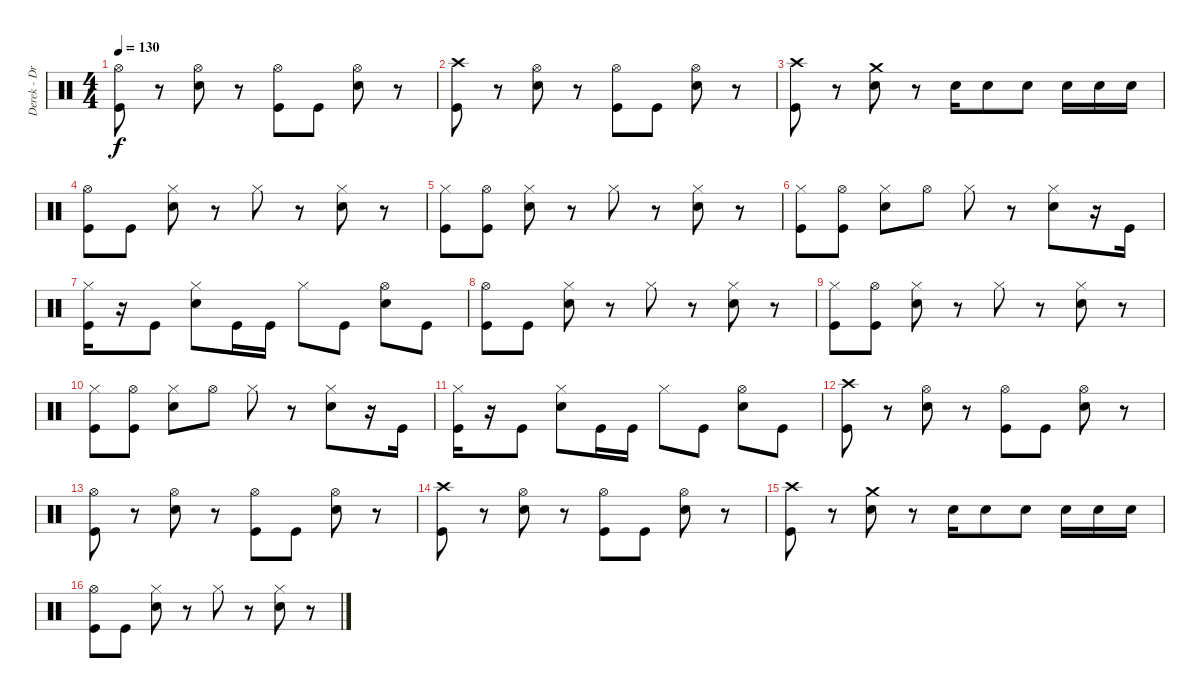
\track ("Derek - Drums" "Derek - Dr") {instrument percussion}
\staff {score}
\articulation defaults
\ts (4 4)
\tempo 130
\clef neutral
\ks c
("Hi-Hat (open)" "Kick (hit)").8{dy f} r.8 ("Hi-Hat (open)" "Electric Snare (hit)").8 r.8 ("Hi-Hat (open)" "Kick (hit)").8 "Kick (hit)".8 ("Hi-Hat (open)" "Electric Snare (hit)").8 r.8 |
("Crash high (hit)" "Kick (hit)").8 r.8 ("Hi-Hat (open)" "Electric Snare (hit)").8 r.8 ("Hi-Hat (open)" "Kick (hit)").8 "Kick (hit)".8 ("Hi-Hat (open)" "Electric Snare (hit)").8 r.8 |
("Crash high (hit)" "Kick (hit)").8 r.8 ("Crash medium (hit)" "Electric Snare (hit)").8 r.8 "Electric Snare (hit)".16 "Electric Snare (hit)".8 "Electric Snare (hit)".8 "Electric Snare (hit)".16 "Electric Snare (hit)".16 "Electric Snare (hit)".16 |
("Hi-Hat (open)" "Kick (hit)").8 "Kick (hit)".8 ("Hi-Hat (closed)" "Electric Snare (hit)").8 r.8 "Hi-Hat (closed)".8 r.8 ("Hi-Hat (closed)" "Electric Snare (hit)").8 r.8 |
("Hi-Hat (closed)" "Kick (hit)").8 ("Hi-Hat (open)" "Kick (hit)").8 ("Hi-Hat (closed)" "Electric Snare (hit)").8 r.8 "Hi-Hat (closed)".8 r.8 ("Hi-Hat (closed)" "Electric Snare (hit)").8 r.8 |
("Hi-Hat (closed)" "Kick (hit)").8 ("Hi-Hat (open)" "Kick (hit)").8 ("Hi-Hat (closed)" "Electric Snare (hit)").8 "Hi-Hat (open)".8 "Hi-Hat (closed)".8 r.8 ("Hi-Hat (closed)" "Electric Snare (hit)").8 r.16 "Kick (hit)".16 |
("Hi-Hat (closed)" "Kick (hit)").16 r.16 "Kick (hit)".8 ("Hi-Hat (closed)" "Electric Snare (hit)").8 "Kick (hit)".16 "Kick (hit)".16 "Hi-Hat (closed)".8 "Kick (hit)".8 ("Hi-Hat (open)" "Electric Snare (hit)").8 "Kick (hit)".8 |
("Hi-Hat (open)" "Kick (hit)").8 "Kick (hit)".8 ("Hi-Hat (closed)" "Electric Snare (hit)").8 r.8 "Hi-Hat (closed)".8 r.8 ("Hi-Hat (closed)" "Electric Snare (hit)").8 r.8 |
("Hi-Hat (closed)" "Kick (hit)").8 ("Hi-Hat (open)" "Kick (hit)").8 ("Hi-Hat (closed)" "Electric Snare (hit)").8 r.8 "Hi-Hat (closed)".8 r.8 ("Hi-Hat (closed)" "Electric Snare (hit)").8 r.8 |
("Hi-Hat (closed)" "Kick (hit)").8 ("Hi-Hat (open)" "Kick (hit)").8 ("Hi-Hat (closed)" "Electric Snare (hit)").8 "Hi-Hat (open)".8 "Hi-Hat (closed)".8 r.8 ("Hi-Hat (closed)" "Electric Snare (hit)").8 r.16 "Kick (hit)".16 |
("Hi-Hat (closed)" "Kick (hit)").16 r.16 "Kick (hit)".8 ("Hi-Hat (closed)" "Electric Snare (hit)").8 "Kick (hit)".16 "Kick (hit)".16 "Hi-Hat (closed)".8 "Kick (hit)".8 ("Hi-Hat (open)" "Electric Snare (hit)").8 "Kick (hit)".8 |
("Crash high (hit)" "Kick (hit)").8 r.8 ("Hi-Hat (open)" "Electric Snare (hit)").8 r.8 ("Hi-Hat (open)" "Kick (hit)").8 "Kick (hit)".8 ("Hi-Hat (open)" "Electric Snare (hit)").8 r.8 |
("Hi-Hat (open)" "Kick (hit)").8 r.8 ("Hi-Hat (open)" "Electric Snare (hit)").8 r.8 ("Hi-Hat (open)" "Kick (hit)").8 "Kick (hit)".8 ("Hi-Hat (open)" "Electric Snare (hit)").8 r.8 |
("Crash high (hit)" "Kick (hit)").8 r.8 ("Hi-Hat (open)" "Electric Snare (hit)").8 r.8 ("Hi-Hat (open)" "Kick (hit)").8 "Kick (hit)".8 ("Hi-Hat (open)" "Electric Snare (hit)").8 r.8 |
("Crash high (hit)" "Kick (hit)").8 r.8 ("Crash medium (hit)" "Electric Snare (hit)").8 r.8 "Electric Snare (hit)".16 "Electric Snare (hit)".8 "Electric Snare (hit)".8 "Electric Snare (hit)".16 "Electric Snare (hit)".16 "Electric Snare (hit)".16 |
("Hi-Hat (open)" "Kick (hit)").8 "Kick (hit)".8 ("Hi-Hat (closed)" "Electric Snare (hit)").8 r.8 "Hi-Hat (closed)".8 r.8 ("Hi-Hat (closed)" "Electric Snare (hit)").8 r.8
